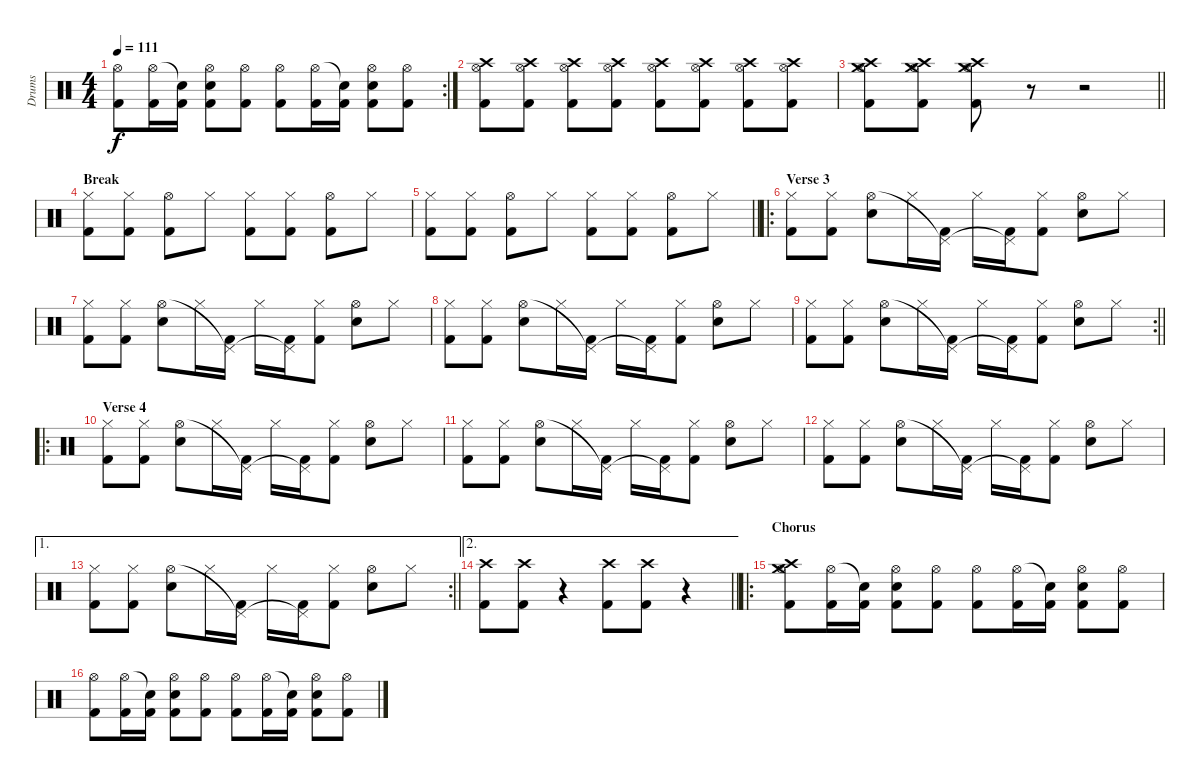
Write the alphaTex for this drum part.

\track ("Drums" "Drums") {instrument percussion}
\staff {score}
\articulation defaults
\rc 2
\ts (4 4)
\tempo 111
\clef neutral
\ks c
("Kick (hit) 2" "Hi-Hat (open)").8{dy f} ("Kick (hit) 2" "Hi-Hat (open)").16 ("Kick (hit) 2" "Snare (hit)"{t}).16 ("Electric Snare (hit)" "Kick (hit) 2" "Hi-Hat (open)").8 ("Kick (hit) 2" "Hi-Hat (open)").8 ("Kick (hit) 2" "Hi-Hat (open)").8 ("Kick (hit) 2" "Hi-Hat (open)").16 ("Kick (hit) 2" "Snare (hit)"{t}).16 ("Electric Snare (hit)" "Kick (hit) 2" "Hi-Hat (open)").8 ("Kick (hit) 2" "Hi-Hat (open)").8 |
("Crash high (hit)" "Kick (hit) 2" "Hi-Hat (open)").8 ("Crash high (hit)" "Kick (hit) 2" "Hi-Hat (open)").8 ("Crash high (hit)" "Kick (hit) 2" "Hi-Hat (open)").8 ("Crash high (hit)" "Kick (hit) 2" "Hi-Hat (open)").8 ("Crash high (hit)" "Kick (hit) 2" "Hi-Hat (open)").8 ("Crash high (hit)" "Kick (hit) 2" "Hi-Hat (open)").8 ("Crash high (hit)" "Kick (hit) 2" "Hi-Hat (open)").8 ("Crash high (hit)" "Kick (hit) 2" "Hi-Hat (open)").8 |
\barLineRight lightlight
("Crash medium (hit)" "Crash high (hit)" "Kick (hit) 2" "Hi-Hat (open)").8 ("Crash medium (hit)" "Crash high (hit)" "Kick (hit) 2" "Hi-Hat (open)").8 ("Crash medium (hit)" "Crash high (hit)" "Kick (hit) 2" "Hi-Hat (open)").8 r.8 r.2 |
\section ("" "Break")
("Kick (hit) 2" "Hi-Hat (closed)").8 ("Kick (hit) 2" "Hi-Hat (closed)").8 ("Kick (hit) 2" "Hi-Hat (open)").8 "Hi-Hat (closed)".8 ("Kick (hit) 2" "Hi-Hat (closed)").8 ("Kick (hit) 2" "Hi-Hat (closed)").8 ("Kick (hit) 2" "Hi-Hat (open)").8 "Hi-Hat (closed)".8 |
\barLineRight lightlight
("Kick (hit) 2" "Hi-Hat (closed)").8 ("Kick (hit) 2" "Hi-Hat (closed)").8 ("Kick (hit) 2" "Hi-Hat (open)").8 "Hi-Hat (closed)".8 ("Kick (hit) 2" "Hi-Hat (closed)").8 ("Kick (hit) 2" "Hi-Hat (closed)").8 ("Kick (hit) 2" "Hi-Hat (open)").8 "Hi-Hat (closed)".8 |
\ro
\section ("" "Verse 3")
("Kick (hit) 2" "Hi-Hat (closed)").8 ("Kick (hit) 2" "Hi-Hat (closed)").8 ("Electric Snare (hit)" "Hi-Hat (open)").8 "Hi-Hat (closed)".16 ("Kick (hit) 2" "Pedal Hi-Hat (hit)"{t}).16 "Hi-Hat (closed)".16 ("Kick (hit) 2" "Pedal Hi-Hat (hit)"{t}).16 ("Kick (hit) 2" "Hi-Hat (closed)").8 ("Electric Snare (hit)" "Hi-Hat (open)").8 "Hi-Hat (closed)".8 |
("Kick (hit) 2" "Hi-Hat (closed)").8 ("Kick (hit) 2" "Hi-Hat (closed)").8 ("Electric Snare (hit)" "Hi-Hat (open)").8 "Hi-Hat (closed)".16 ("Kick (hit) 2" "Pedal Hi-Hat (hit)"{t}).16 "Hi-Hat (closed)".16 ("Kick (hit) 2" "Pedal Hi-Hat (hit)"{t}).16 ("Kick (hit) 2" "Hi-Hat (closed)").8 ("Electric Snare (hit)" "Hi-Hat (open)").8 "Hi-Hat (closed)".8 |
("Kick (hit) 2" "Hi-Hat (closed)").8 ("Kick (hit) 2" "Hi-Hat (closed)").8 ("Electric Snare (hit)" "Hi-Hat (open)").8 "Hi-Hat (closed)".16 ("Kick (hit) 2" "Pedal Hi-Hat (hit)"{t}).16 "Hi-Hat (closed)".16 ("Kick (hit) 2" "Pedal Hi-Hat (hit)"{t}).16 ("Kick (hit) 2" "Hi-Hat (closed)").8 ("Electric Snare (hit)" "Hi-Hat (open)").8 "Hi-Hat (closed)".8 |
\rc 2
\barLineRight lightlight
("Kick (hit) 2" "Hi-Hat (closed)").8 ("Kick (hit) 2" "Hi-Hat (closed)").8 ("Electric Snare (hit)" "Hi-Hat (open)").8 "Hi-Hat (closed)".16 ("Kick (hit) 2" "Pedal Hi-Hat (hit)"{t}).16 "Hi-Hat (closed)".16 ("Kick (hit) 2" "Pedal Hi-Hat (hit)"{t}).16 ("Kick (hit) 2" "Hi-Hat (closed)").8 ("Electric Snare (hit)" "Hi-Hat (open)").8 "Hi-Hat (closed)".8 |
\ro
\section ("" "Verse 4")
("Kick (hit) 2" "Hi-Hat (closed)").8 ("Kick (hit) 2" "Hi-Hat (closed)").8 ("Electric Snare (hit)" "Hi-Hat (open)").8 "Hi-Hat (closed)".16 ("Kick (hit) 2" "Pedal Hi-Hat (hit)"{t}).16 "Hi-Hat (closed)".16 ("Kick (hit) 2" "Pedal Hi-Hat (hit)"{t}).16 ("Kick (hit) 2" "Hi-Hat (closed)").8 ("Electric Snare (hit)" "Hi-Hat (open)").8 "Hi-Hat (closed)".8 |
("Kick (hit) 2" "Hi-Hat (closed)").8 ("Kick (hit) 2" "Hi-Hat (closed)").8 ("Electric Snare (hit)" "Hi-Hat (open)").8 "Hi-Hat (closed)".16 ("Kick (hit) 2" "Pedal Hi-Hat (hit)"{t}).16 "Hi-Hat (closed)".16 ("Kick (hit) 2" "Pedal Hi-Hat (hit)"{t}).16 ("Kick (hit) 2" "Hi-Hat (closed)").8 ("Electric Snare (hit)" "Hi-Hat (open)").8 "Hi-Hat (closed)".8 |
("Kick (hit) 2" "Hi-Hat (closed)").8 ("Kick (hit) 2" "Hi-Hat (closed)").8 ("Electric Snare (hit)" "Hi-Hat (open)").8 "Hi-Hat (closed)".16 ("Kick (hit) 2" "Pedal Hi-Hat (hit)"{t}).16 "Hi-Hat (closed)".16 ("Kick (hit) 2" "Pedal Hi-Hat (hit)"{t}).16 ("Kick (hit) 2" "Hi-Hat (closed)").8 ("Electric Snare (hit)" "Hi-Hat (open)").8 "Hi-Hat (closed)".8 |
\ae 1
\rc 2
\barLineRight lightlight
("Kick (hit) 2" "Hi-Hat (closed)").8 ("Kick (hit) 2" "Hi-Hat (closed)").8 ("Electric Snare (hit)" "Hi-Hat (open)").8 "Hi-Hat (closed)".16 ("Kick (hit) 2" "Pedal Hi-Hat (hit)"{t}).16 "Hi-Hat (closed)".16 ("Kick (hit) 2" "Pedal Hi-Hat (hit)"{t}).16 ("Kick (hit) 2" "Hi-Hat (closed)").8 ("Electric Snare (hit)" "Hi-Hat (open)").8 "Hi-Hat (closed)".8 |
\ae 2
\barLineRight lightlight
("Crash high (hit)" "Kick (hit) 2").8 ("Crash high (hit)" "Kick (hit) 2").8 r.4 ("Crash high (hit)" "Kick (hit) 2").8 ("Crash high (hit)" "Kick (hit) 2").8 r.4 |
\ro
\section ("" "Chorus")
("Crash medium (hit)" "Crash high (hit)" "Kick (hit) 2" "Hi-Hat (open)").8 ("Kick (hit) 2" "Hi-Hat (open)").16 ("Kick (hit) 2" "Snare (hit)"{t}).16 ("Electric Snare (hit)" "Kick (hit) 2" "Hi-Hat (open)").8 ("Kick (hit) 2" "Hi-Hat (open)").8 ("Kick (hit) 2" "Hi-Hat (open)").8 ("Kick (hit) 2" "Hi-Hat (open)").16 ("Kick (hit) 2" "Snare (hit)"{t}).16 ("Electric Snare (hit)" "Kick (hit) 2" "Hi-Hat (open)").8 ("Kick (hit) 2" "Hi-Hat (open)").8 |
("Kick (hit) 2" "Hi-Hat (open)").8 ("Kick (hit) 2" "Hi-Hat (open)").16 ("Kick (hit) 2" "Snare (hit)"{t}).16 ("Electric Snare (hit)" "Kick (hit) 2" "Hi-Hat (open)").8 ("Kick (hit) 2" "Hi-Hat (open)").8 ("Kick (hit) 2" "Hi-Hat (open)").8 ("Kick (hit) 2" "Hi-Hat (open)").16 ("Kick (hit) 2" "Snare (hit)"{t}).16 ("Electric Snare (hit)" "Kick (hit) 2" "Hi-Hat (open)").8 ("Kick (hit) 2" "Hi-Hat (open)").8
